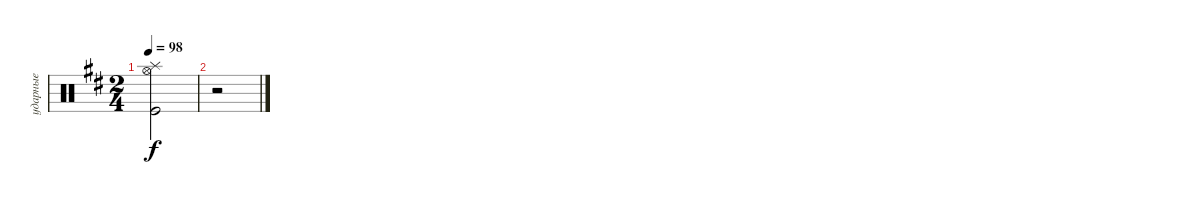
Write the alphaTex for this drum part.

\track ("ударные" "ударные") {instrument percussion}
\staff {score}
\articulation defaults
\ts (2 4)
\tempo 98
\clef neutral
\ks bminor
("Kick (hit)" "Splash (hit)" "Hi-Hat (open)").2{dy f} |
r.2
